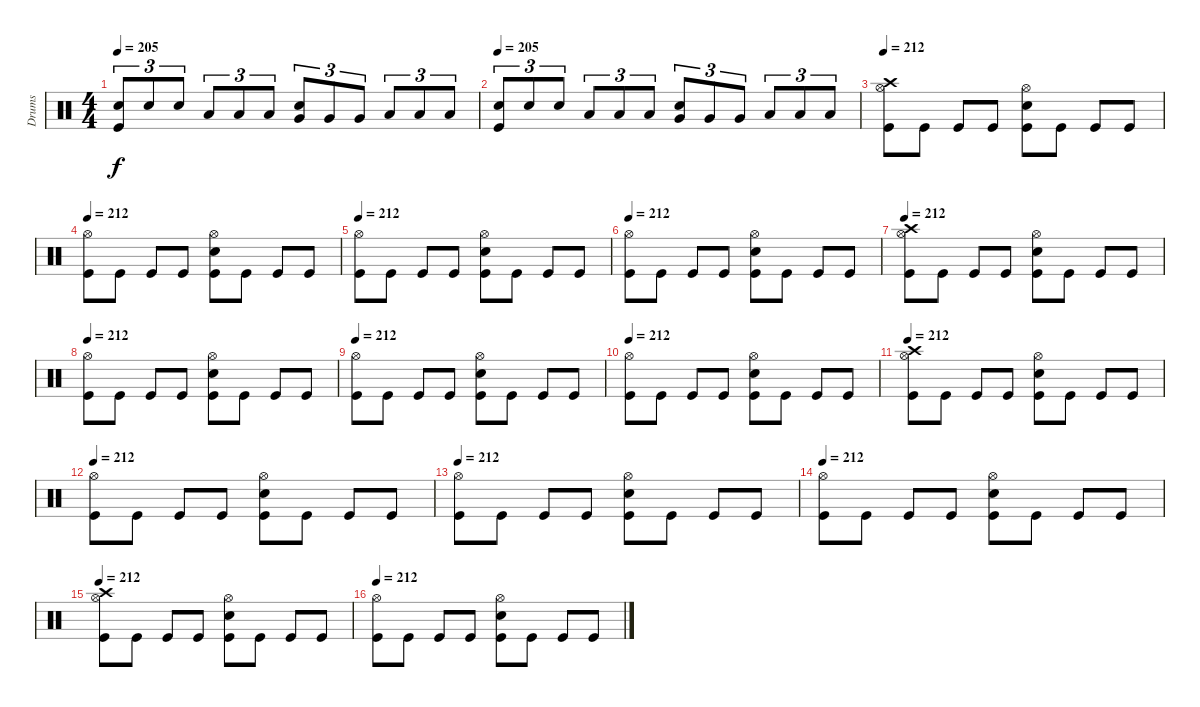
\track ("Drums" "Drums") {instrument percussion}
\staff {score}
\articulation defaults
\ts (4 4)
\tempo 205
\clef neutral
\ks c
("Electric Snare (hit)" "Kick (hit)").8{tu (3 2) dy f} "Electric Snare (hit)".8{tu (3 2)} "Electric Snare (hit)".8{tu (3 2)} "Low Tom (hit)".8{tu (3 2)} "Low Tom (hit)".8{tu (3 2)} "Low Tom (hit)".8{tu (3 2)} ("Electric Snare (hit)" "Very Low Tom (hit)").8{tu (3 2)} "Very Low Tom (hit)".8{tu (3 2)} "Very Low Tom (hit)".8{tu (3 2)} "Low Floor Tom (hit)".8{tu (3 2)} "Low Floor Tom (hit)".8{tu (3 2)} "Low Floor Tom (hit)".8{tu (3 2)} |
\tempo 205
("Electric Snare (hit)" "Kick (hit)").8{tu (3 2)} "Electric Snare (hit)".8{tu (3 2)} "Electric Snare (hit)".8{tu (3 2)} "Low Tom (hit)".8{tu (3 2)} "Low Tom (hit)".8{tu (3 2)} "Low Tom (hit)".8{tu (3 2)} ("Electric Snare (hit)" "Very Low Tom (hit)").8{tu (3 2)} "Very Low Tom (hit)".8{tu (3 2)} "Very Low Tom (hit)".8{tu (3 2)} "Low Floor Tom (hit)".8{tu (3 2)} "Low Floor Tom (hit)".8{tu (3 2)} "Low Floor Tom (hit)".8{tu (3 2)} |
\tempo 212
("Crash high (hit)" "Hi-Hat (open)" "Kick (hit)").8 "Kick (hit)".8 "Kick (hit)".8 "Kick (hit)".8 ("Electric Snare (hit)" "Hi-Hat (open)" "Kick (hit)").8 "Kick (hit)".8 "Kick (hit)".8 "Kick (hit)".8 |
\tempo 212
("Hi-Hat (open)" "Kick (hit)").8 "Kick (hit)".8 "Kick (hit)".8 "Kick (hit)".8 ("Electric Snare (hit)" "Hi-Hat (open)" "Kick (hit)").8 "Kick (hit)".8 "Kick (hit)".8 "Kick (hit)".8 |
\tempo 212
("Hi-Hat (open)" "Kick (hit)").8 "Kick (hit)".8 "Kick (hit)".8 "Kick (hit)".8 ("Electric Snare (hit)" "Hi-Hat (open)" "Kick (hit)").8 "Kick (hit)".8 "Kick (hit)".8 "Kick (hit)".8 |
\tempo 212
("Hi-Hat (open)" "Kick (hit)").8 "Kick (hit)".8 "Kick (hit)".8 "Kick (hit)".8 ("Electric Snare (hit)" "Hi-Hat (open)" "Kick (hit)").8 "Kick (hit)".8 "Kick (hit)".8 "Kick (hit)".8 |
\tempo 212
("Crash high (hit)" "Hi-Hat (open)" "Kick (hit)").8 "Kick (hit)".8 "Kick (hit)".8 "Kick (hit)".8 ("Electric Snare (hit)" "Hi-Hat (open)" "Kick (hit)").8 "Kick (hit)".8 "Kick (hit)".8 "Kick (hit)".8 |
\tempo 212
("Hi-Hat (open)" "Kick (hit)").8 "Kick (hit)".8 "Kick (hit)".8 "Kick (hit)".8 ("Electric Snare (hit)" "Hi-Hat (open)" "Kick (hit)").8 "Kick (hit)".8 "Kick (hit)".8 "Kick (hit)".8 |
\tempo 212
("Hi-Hat (open)" "Kick (hit)").8 "Kick (hit)".8 "Kick (hit)".8 "Kick (hit)".8 ("Electric Snare (hit)" "Hi-Hat (open)" "Kick (hit)").8 "Kick (hit)".8 "Kick (hit)".8 "Kick (hit)".8 |
\tempo 212
("Hi-Hat (open)" "Kick (hit)").8 "Kick (hit)".8 "Kick (hit)".8 "Kick (hit)".8 ("Electric Snare (hit)" "Hi-Hat (open)" "Kick (hit)").8 "Kick (hit)".8 "Kick (hit)".8 "Kick (hit)".8 |
\tempo 212
("Crash high (hit)" "Hi-Hat (open)" "Kick (hit)").8 "Kick (hit)".8 "Kick (hit)".8 "Kick (hit)".8 ("Electric Snare (hit)" "Hi-Hat (open)" "Kick (hit)").8 "Kick (hit)".8 "Kick (hit)".8 "Kick (hit)".8 |
\tempo 212
("Hi-Hat (open)" "Kick (hit)").8 "Kick (hit)".8 "Kick (hit)".8 "Kick (hit)".8 ("Electric Snare (hit)" "Hi-Hat (open)" "Kick (hit)").8 "Kick (hit)".8 "Kick (hit)".8 "Kick (hit)".8 |
\tempo 212
("Hi-Hat (open)" "Kick (hit)").8 "Kick (hit)".8 "Kick (hit)".8 "Kick (hit)".8 ("Electric Snare (hit)" "Hi-Hat (open)" "Kick (hit)").8 "Kick (hit)".8 "Kick (hit)".8 "Kick (hit)".8 |
\tempo 212
("Hi-Hat (open)" "Kick (hit)").8 "Kick (hit)".8 "Kick (hit)".8 "Kick (hit)".8 ("Electric Snare (hit)" "Hi-Hat (open)" "Kick (hit)").8 "Kick (hit)".8 "Kick (hit)".8 "Kick (hit)".8 |
\tempo 212
("Crash high (hit)" "Hi-Hat (open)" "Kick (hit)").8 "Kick (hit)".8 "Kick (hit)".8 "Kick (hit)".8 ("Electric Snare (hit)" "Hi-Hat (open)" "Kick (hit)").8 "Kick (hit)".8 "Kick (hit)".8 "Kick (hit)".8 |
\tempo 212
("Hi-Hat (open)" "Kick (hit)").8 "Kick (hit)".8 "Kick (hit)".8 "Kick (hit)".8 ("Electric Snare (hit)" "Hi-Hat (open)" "Kick (hit)").8 "Kick (hit)".8 "Kick (hit)".8 "Kick (hit)".8
